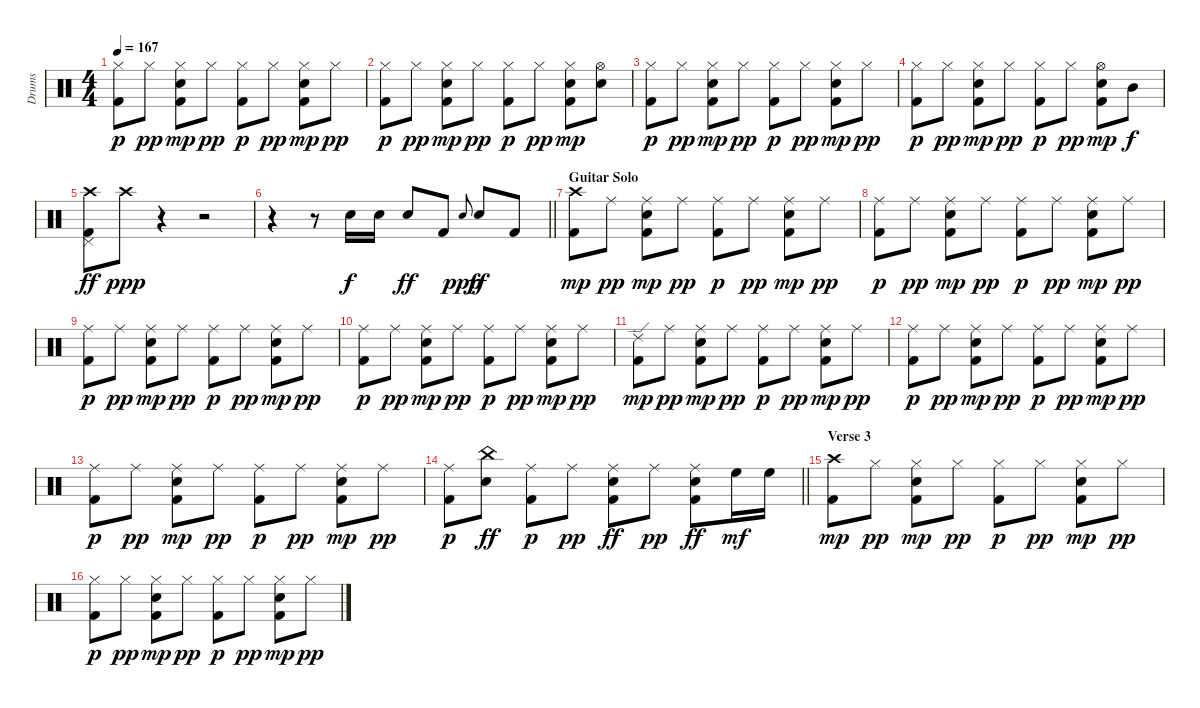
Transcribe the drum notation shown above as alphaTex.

\track ("Drums" "Drums") {instrument percussion}
\staff {score}
\articulation defaults
\ts (4 4)
\tempo 167
\clef neutral
\ks aminor
("Hi-Hat (closed)" "Kick (hit) 2").8{dy p} "Hi-Hat (closed)".8{dy pp} ("Hi-Hat (closed)" "Electric Snare (hit)" "Kick (hit) 2").8{dy mp} "Hi-Hat (closed)".8{dy pp} ("Hi-Hat (closed)" "Kick (hit) 2").8{dy p} "Hi-Hat (closed)".8{dy pp} ("Hi-Hat (closed)" "Electric Snare (hit)" "Kick (hit) 2").8{dy mp} "Hi-Hat (closed)".8{dy pp} |
("Hi-Hat (closed)" "Kick (hit) 2").8{dy p} "Hi-Hat (closed)".8{dy pp} ("Hi-Hat (closed)" "Electric Snare (hit)" "Kick (hit) 2").8{dy mp} "Hi-Hat (closed)".8{dy pp} ("Hi-Hat (closed)" "Kick (hit) 2").8{dy p} "Hi-Hat (closed)".8{dy pp} ("Hi-Hat (closed)" "Electric Snare (hit)" "Kick (hit) 2").8{dy mp} ("Hi-Hat (open)" "Electric Snare (hit)").8 |
("Hi-Hat (closed)" "Kick (hit) 2").8{dy p} "Hi-Hat (closed)".8{dy pp} ("Hi-Hat (closed)" "Electric Snare (hit)" "Kick (hit) 2").8{dy mp} "Hi-Hat (closed)".8{dy pp} ("Hi-Hat (closed)" "Kick (hit) 2").8{dy p} "Hi-Hat (closed)".8{dy pp} ("Hi-Hat (closed)" "Electric Snare (hit)" "Kick (hit) 2").8{dy mp} "Hi-Hat (closed)".8{dy pp} |
("Hi-Hat (closed)" "Kick (hit) 2").8{dy p} "Hi-Hat (closed)".8{dy pp} ("Hi-Hat (closed)" "Electric Snare (hit)" "Kick (hit) 2").8{dy mp} "Hi-Hat (closed)".8{dy pp} ("Hi-Hat (closed)" "Kick (hit) 2").8{dy p} "Hi-Hat (closed)".8{dy pp} ("Hi-Hat (open)" "Electric Snare (hit)" "Kick (hit) 2").8{dy mp} "Mid Tom (hit)".8{dy f} |
("Kick (hit) 2" "Crash high (hit)" "Pedal Hi-Hat (hit)").8{dy ff} "Crash high (hit)".8{dy ppp} r.4 r.2 |
\barLineRight lightlight
r.4 r.8 "Electric Snare (hit)".16{dy f} "Electric Snare (hit)".16 "Electric Snare (hit)".8{dy ff} "Kick (hit) 2".8 "Electric Snare (hit)".8{gr onbeat dy ppp} "Electric Snare (hit)".8{dy ff} "Kick (hit) 2".8 |
\section ("" "Guitar Solo")
("Crash high (hit)" "Kick (hit) 2").8{dy mp} "Ride (middle)".8{dy pp} ("Ride (middle)" "Kick (hit) 2" "Electric Snare (hit)").8{dy mp} "Ride (middle)".8{dy pp} ("Ride (middle)" "Kick (hit) 2").8{dy p} "Ride (middle)".8{dy pp} ("Ride (middle)" "Kick (hit) 2" "Electric Snare (hit)").8{dy mp} "Ride (middle)".8{dy pp} |
("Ride (middle)" "Kick (hit) 2").8{dy p} "Ride (middle)".8{dy pp} ("Ride (middle)" "Kick (hit) 2" "Electric Snare (hit)").8{dy mp} "Ride (middle)".8{dy pp} ("Ride (middle)" "Kick (hit) 2").8{dy p} "Ride (middle)".8{dy pp} ("Ride (middle)" "Kick (hit) 2" "Electric Snare (hit)").8{dy mp} "Ride (middle)".8{dy pp} |
("Ride (middle)" "Kick (hit) 2").8{dy p} "Ride (middle)".8{dy pp} ("Ride (middle)" "Kick (hit) 2" "Electric Snare (hit)").8{dy mp} "Ride (middle)".8{dy pp} ("Ride (middle)" "Kick (hit) 2").8{dy p} "Ride (middle)".8{dy pp} ("Ride (middle)" "Kick (hit) 2" "Electric Snare (hit)").8{dy mp} "Ride (middle)".8{dy pp} |
("Ride (middle)" "Kick (hit) 2").8{dy p} "Ride (middle)".8{dy pp} ("Ride (middle)" "Kick (hit) 2" "Electric Snare (hit)").8{dy mp} "Ride (middle)".8{dy pp} ("Ride (middle)" "Kick (hit) 2").8{dy p} "Ride (middle)".8{dy pp} ("Ride (middle)" "Kick (hit) 2" "Electric Snare (hit)").8{dy mp} "Ride (middle)".8{dy pp} |
("Ride (edge) 2" "Kick (hit) 2").8{dy mp} "Ride (middle)".8{dy pp} ("Ride (middle)" "Kick (hit) 2" "Electric Snare (hit)").8{dy mp} "Ride (middle)".8{dy pp} ("Ride (middle)" "Kick (hit) 2").8{dy p} "Ride (middle)".8{dy pp} ("Ride (middle)" "Kick (hit) 2" "Electric Snare (hit)").8{dy mp} "Ride (middle)".8{dy pp} |
("Ride (middle)" "Kick (hit) 2").8{dy p} "Ride (middle)".8{dy pp} ("Ride (middle)" "Kick (hit) 2" "Electric Snare (hit)").8{dy mp} "Ride (middle)".8{dy pp} ("Ride (middle)" "Kick (hit) 2").8{dy p} "Ride (middle)".8{dy pp} ("Ride (middle)" "Kick (hit) 2" "Electric Snare (hit)").8{dy mp} "Ride (middle)".8{dy pp} |
("Ride (middle)" "Kick (hit) 2").8{dy p} "Ride (middle)".8{dy pp} ("Ride (middle)" "Kick (hit) 2" "Electric Snare (hit)").8{dy mp} "Ride (middle)".8{dy pp} ("Ride (middle)" "Kick (hit) 2").8{dy p} "Ride (middle)".8{dy pp} ("Ride (middle)" "Kick (hit) 2" "Electric Snare (hit)").8{dy mp} "Ride (middle)".8{dy pp} |
\barLineRight lightlight
("Ride (middle)" "Kick (hit) 2").8{dy p} ("China (hit)" "Electric Snare (hit)").8{dy ff} ("Ride (middle)" "Kick (hit) 2").8{dy p} "Ride (middle)".8{dy pp} ("Ride (middle)" "Kick (hit) 2" "Electric Snare (hit)").8{dy ff} "Ride (middle)".8{dy pp} ("Ride (middle)" "Kick (hit) 2" "Electric Snare (hit)").8{dy ff} "High Floor Tom (hit)".16{dy mf} "High Floor Tom (hit)".16 |
\section ("" "Verse 3")
("Kick (hit) 2" "Crash high (hit)").8{dy mp} "Hi-Hat (closed)".8{dy pp} ("Hi-Hat (closed)" "Electric Snare (hit)" "Kick (hit) 2").8{dy mp} "Hi-Hat (closed)".8{dy pp} ("Hi-Hat (closed)" "Kick (hit) 2").8{dy p} "Hi-Hat (closed)".8{dy pp} ("Hi-Hat (closed)" "Electric Snare (hit)" "Kick (hit) 2").8{dy mp} "Hi-Hat (closed)".8{dy pp} |
("Hi-Hat (closed)" "Kick (hit) 2").8{dy p} "Hi-Hat (closed)".8{dy pp} ("Hi-Hat (closed)" "Electric Snare (hit)" "Kick (hit) 2").8{dy mp} "Hi-Hat (closed)".8{dy pp} ("Hi-Hat (closed)" "Kick (hit) 2").8{dy p} "Hi-Hat (closed)".8{dy pp} ("Hi-Hat (closed)" "Electric Snare (hit)" "Kick (hit) 2").8{dy mp} "Hi-Hat (closed)".8{dy pp}
